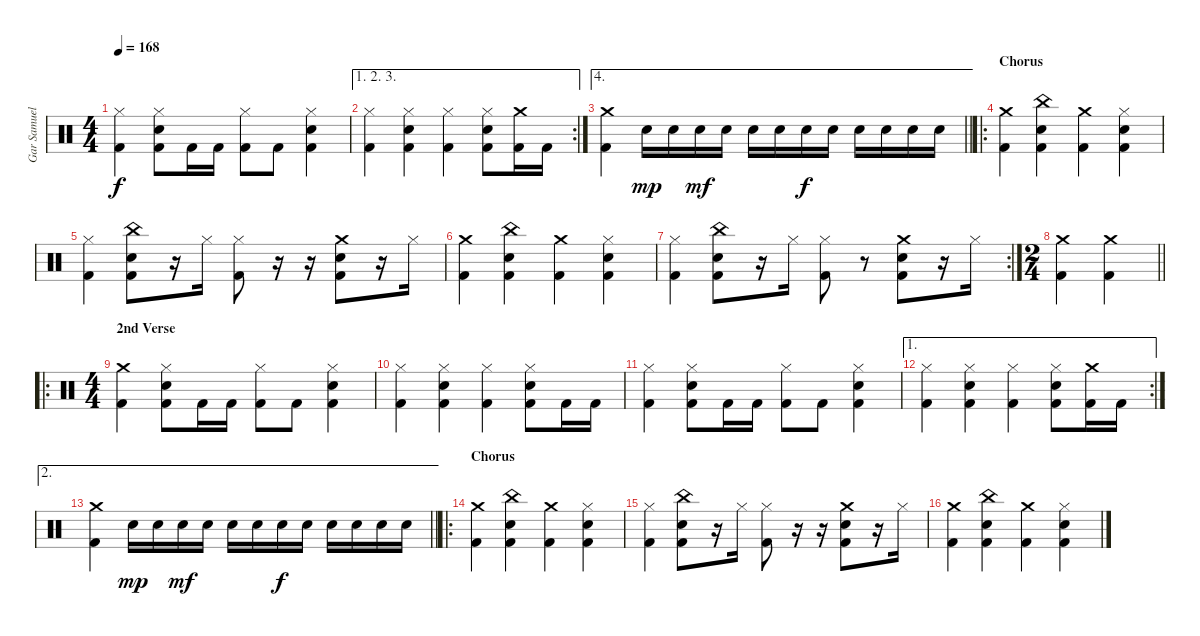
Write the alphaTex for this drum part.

\track ("Gar Samuelson" "Gar Samuel") {instrument percussion}
\staff {score}
\articulation defaults
\ts (4 4)
\tempo 168
\clef neutral
\ks c
("Hi-Hat (closed)" "Kick (hit) 2").4{dy f} ("Hi-Hat (closed)" "Snare (hit) 2" "Kick (hit) 2").8 "Kick (hit) 2".16 "Kick (hit) 2".16 ("Hi-Hat (closed)" "Kick (hit) 2").8 "Kick (hit) 2".8 ("Hi-Hat (closed)" "Snare (hit) 2" "Kick (hit) 2").4 |
\ae (1 2 3)
\rc 2
("Hi-Hat (closed)" "Kick (hit) 2").4 ("Hi-Hat (closed)" "Snare (hit) 2" "Kick (hit) 2").4 ("Hi-Hat (closed)" "Kick (hit) 2").4 ("Hi-Hat (closed)" "Snare (hit) 2" "Kick (hit) 2").8 ("Crash medium (hit)" "Kick (hit) 2").16 "Kick (hit) 2".16 |
\ae 4
\barLineRight lightlight
("Crash medium (hit)" "Kick (hit) 2").4 "Snare (hit) 2".16{dy mp} "Snare (hit) 2".16 "Snare (hit) 2".16{dy mf} "Snare (hit) 2".16 "Snare (hit) 2".16 "Snare (hit) 2".16 "Snare (hit) 2".16{dy f} "Snare (hit) 2".16 "Snare (hit) 2".16 "Snare (hit) 2".16 "Snare (hit) 2".16 "Snare (hit) 2".16 |
\ro
\section ("" "Chorus")
("Crash medium (hit)" "Kick (hit) 2").4 ("China (hit)" "Snare (hit) 2" "Kick (hit) 2").4 ("Crash medium (hit)" "Kick (hit) 2").4 ("Hi-Hat (closed)" "Snare (hit) 2" "Kick (hit) 2").4 |
("Hi-Hat (closed)" "Kick (hit) 2").4 ("China (hit)" "Snare (hit) 2" "Kick (hit) 2").8 r.16 "Hi-Hat (closed)".16 ("Hi-Hat (closed)" "Kick (hit) 2").8 r.16 r.16 ("Crash medium (hit)" "Snare (hit) 2" "Kick (hit) 2").8 r.16 "Hi-Hat (closed)".16 |
("Crash medium (hit)" "Kick (hit) 2").4 ("China (hit)" "Snare (hit) 2" "Kick (hit) 2").4 ("Crash medium (hit)" "Kick (hit) 2").4 ("Hi-Hat (closed)" "Snare (hit) 2" "Kick (hit) 2").4 |
\rc 2
("Hi-Hat (closed)" "Kick (hit) 2").4 ("China (hit)" "Snare (hit) 2" "Kick (hit) 2").8 r.16 "Hi-Hat (closed)".16 ("Hi-Hat (closed)" "Kick (hit) 2").8 r.8 ("Crash medium (hit)" "Snare (hit) 2" "Kick (hit) 2").8 r.16 "Hi-Hat (closed)".16 |
\ts (2 4)
\barLineRight lightlight
("Crash medium (hit)" "Kick (hit) 2").4 ("Crash medium (hit)" "Kick (hit) 2").4 |
\ro
\ts (4 4)
\section ("" "2nd Verse")
("Crash medium (hit)" "Kick (hit) 2").4 ("Hi-Hat (closed)" "Snare (hit) 2" "Kick (hit) 2").8 "Kick (hit) 2".16 "Kick (hit) 2".16 ("Hi-Hat (closed)" "Kick (hit) 2").8 "Kick (hit) 2".8 ("Hi-Hat (closed)" "Snare (hit) 2" "Kick (hit) 2").4 |
("Hi-Hat (closed)" "Kick (hit) 2").4 ("Hi-Hat (closed)" "Snare (hit) 2" "Kick (hit) 2").4 ("Hi-Hat (closed)" "Kick (hit) 2").4 ("Hi-Hat (closed)" "Snare (hit) 2" "Kick (hit) 2").8 "Kick (hit) 2".16 "Kick (hit) 2".16 |
("Hi-Hat (closed)" "Kick (hit) 2").4 ("Hi-Hat (closed)" "Snare (hit) 2" "Kick (hit) 2").8 "Kick (hit) 2".16 "Kick (hit) 2".16 ("Hi-Hat (closed)" "Kick (hit) 2").8 "Kick (hit) 2".8 ("Hi-Hat (closed)" "Snare (hit) 2" "Kick (hit) 2").4 |
\ae 1
\rc 2
("Hi-Hat (closed)" "Kick (hit) 2").4 ("Hi-Hat (closed)" "Snare (hit) 2" "Kick (hit) 2").4 ("Hi-Hat (closed)" "Kick (hit) 2").4 ("Hi-Hat (closed)" "Snare (hit) 2" "Kick (hit) 2").8 ("Crash medium (hit)" "Kick (hit) 2").16 "Kick (hit) 2".16 |
\ae 2
\barLineRight lightlight
("Crash medium (hit)" "Kick (hit) 2").4 "Snare (hit) 2".16{dy mp} "Snare (hit) 2".16 "Snare (hit) 2".16{dy mf} "Snare (hit) 2".16 "Snare (hit) 2".16 "Snare (hit) 2".16 "Snare (hit) 2".16{dy f} "Snare (hit) 2".16 "Snare (hit) 2".16 "Snare (hit) 2".16 "Snare (hit) 2".16 "Snare (hit) 2".16 |
\ro
\section ("" "Chorus")
("Crash medium (hit)" "Kick (hit) 2").4 ("China (hit)" "Snare (hit) 2" "Kick (hit) 2").4 ("Crash medium (hit)" "Kick (hit) 2").4 ("Hi-Hat (closed)" "Snare (hit) 2" "Kick (hit) 2").4 |
("Hi-Hat (closed)" "Kick (hit) 2").4 ("China (hit)" "Snare (hit) 2" "Kick (hit) 2").8 r.16 "Hi-Hat (closed)".16 ("Hi-Hat (closed)" "Kick (hit) 2").8 r.16 r.16 ("Crash medium (hit)" "Snare (hit) 2" "Kick (hit) 2").8 r.16 "Hi-Hat (closed)".16 |
("Crash medium (hit)" "Kick (hit) 2").4 ("China (hit)" "Snare (hit) 2" "Kick (hit) 2").4 ("Crash medium (hit)" "Kick (hit) 2").4 ("Hi-Hat (closed)" "Snare (hit) 2" "Kick (hit) 2").4
